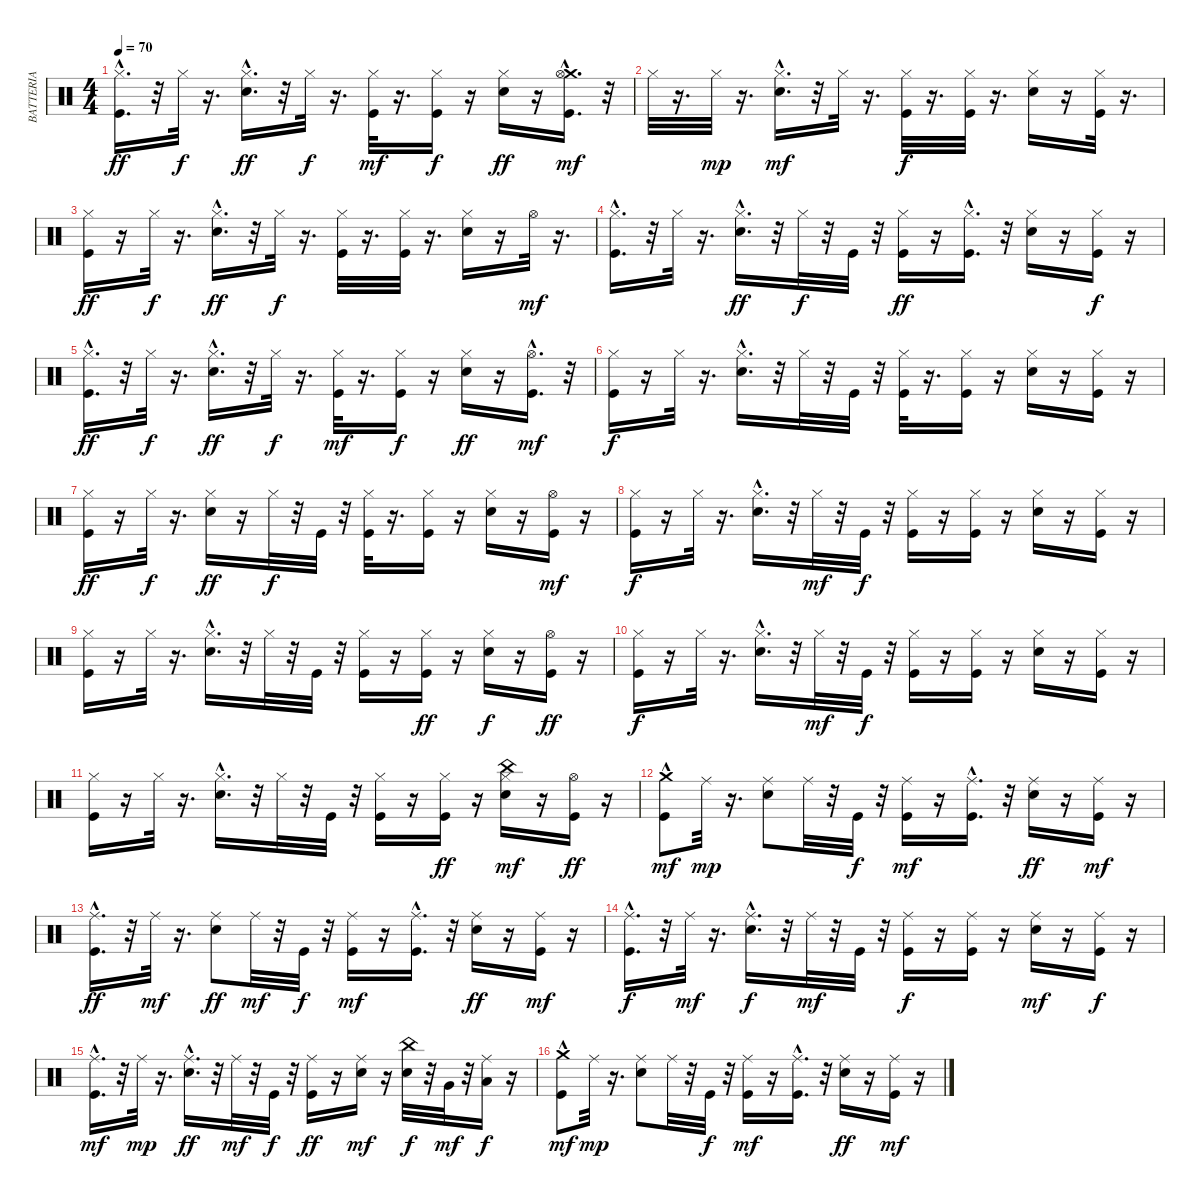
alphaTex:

\track ("BATTERIA" "BATTERIA") {instrument percussion}
\staff {score}
\articulation defaults
\ts (4 4)
\tempo 70
\clef neutral
\ks c
("Kick (hit)"{hac} "Hi-Hat (closed)").16{d dy ff} r.32 "Hi-Hat (closed)".32{dy f} r.16{d} ("Snare (hit) 2"{hac} "Hi-Hat (closed)").16{d dy ff} r.32 "Hi-Hat (closed)".32{dy f} r.16{d} ("Kick (hit)" "Hi-Hat (closed)").32{dy mf} r.16{d} ("Kick (hit)" "Hi-Hat (closed)").16{dy f} r.16 ("Snare (hit) 2" "Hi-Hat (closed)").16{dy ff} r.16 ("Crash medium (hit)" "Kick (hit)"{hac} "Hi-Hat (open)").16{d dy mf} r.32 |
"Hi-Hat (closed)".32 r.16{d} "Hi-Hat (closed)".32{dy mp} r.16{d} ("Snare (hit) 2"{hac} "Hi-Hat (closed)").16{d dy mf} r.32 "Hi-Hat (closed)".32 r.16{d} ("Hi-Hat (closed)" "Kick (hit)").32{dy f} r.16{d} ("Hi-Hat (closed)" "Kick (hit)").32 r.16{d} ("Hi-Hat (closed)" "Snare (hit) 2").16 r.16 ("Hi-Hat (closed)" "Kick (hit)").32 r.16{d} |
("Hi-Hat (closed)" "Kick (hit)").16{dy ff} r.16 "Hi-Hat (closed)".32{dy f} r.16{d} ("Hi-Hat (closed)" "Snare (hit) 2"{hac}).16{d dy ff} r.32 "Hi-Hat (closed)".32{dy f} r.16{d} ("Kick (hit)" "Hi-Hat (closed)").32 r.16{d} ("Hi-Hat (closed)" "Kick (hit)").32 r.16{d} ("Hi-Hat (closed)" "Snare (hit) 2").16 r.16 "Hi-Hat (open)".32{dy mf} r.16{d} |
("Kick (hit)"{hac} "Hi-Hat (closed)").16{d} r.32 "Hi-Hat (closed)".32 r.16{d} ("Hi-Hat (closed)" "Snare (hit) 2"{hac}).16{d dy ff} r.32 "Hi-Hat (closed)".32{dy f} r.32 "Kick (hit)".32 r.32 ("Kick (hit)" "Hi-Hat (closed)").16{dy ff} r.16 ("Kick (hit)"{hac} "Hi-Hat (closed)").16{d} r.32 ("Snare (hit) 2" "Hi-Hat (closed)").16 r.16 ("Hi-Hat (closed)" "Kick (hit)").16{dy f} r.16 |
("Kick (hit)"{hac} "Hi-Hat (closed)").16{d dy ff} r.32 "Hi-Hat (closed)".32{dy f} r.16{d} ("Snare (hit) 2"{hac} "Hi-Hat (closed)").16{d dy ff} r.32 "Hi-Hat (closed)".32{dy f} r.16{d} ("Kick (hit)" "Hi-Hat (closed)").32{dy mf} r.16{d} ("Kick (hit)" "Hi-Hat (closed)").16{dy f} r.16 ("Snare (hit) 2" "Hi-Hat (closed)").16{dy ff} r.16 ("Kick (hit)"{hac} "Hi-Hat (open)").16{d dy mf} r.32 |
("Kick (hit)" "Hi-Hat (closed)").16{dy f} r.16 "Hi-Hat (closed)".32 r.16{d} ("Hi-Hat (closed)" "Snare (hit) 2"{hac}).16{d} r.32 "Hi-Hat (closed)".32 r.32 "Kick (hit)".32 r.32 ("Hi-Hat (closed)" "Kick (hit)").32 r.16{d} ("Hi-Hat (closed)" "Kick (hit)").16 r.16 ("Hi-Hat (closed)" "Snare (hit) 2").16 r.16 ("Hi-Hat (closed)" "Kick (hit)").16 r.16 |
("Hi-Hat (closed)" "Kick (hit)").16{dy ff} r.16 "Hi-Hat (closed)".32{dy f} r.16{d} ("Hi-Hat (closed)" "Snare (hit) 2").16{dy ff} r.16 "Hi-Hat (closed)".32{dy f} r.32 "Kick (hit)".32 r.32 ("Kick (hit)" "Hi-Hat (closed)").32 r.16{d} ("Kick (hit)" "Hi-Hat (closed)").16 r.16 ("Snare (hit) 2" "Hi-Hat (closed)").16 r.16 ("Kick (hit)" "Hi-Hat (open)").16{dy mf} r.16 |
("Hi-Hat (closed)" "Kick (hit)").16{dy f} r.16 "Hi-Hat (closed)".32 r.16{d} ("Hi-Hat (closed)" "Snare (hit) 2"{hac}).16{d} r.32 "Hi-Hat (closed)".32{dy mf} r.32 "Kick (hit)".32{dy f} r.32 ("Hi-Hat (closed)" "Kick (hit)").16 r.16 ("Kick (hit)" "Hi-Hat (closed)").16 r.16 ("Snare (hit) 2" "Hi-Hat (closed)").16 r.16 ("Hi-Hat (closed)" "Kick (hit)").16 r.16 |
("Kick (hit)" "Hi-Hat (closed)").16 r.16 "Hi-Hat (closed)".32 r.16{d} ("Hi-Hat (closed)" "Snare (hit) 2"{hac}).16{d} r.32 "Hi-Hat (closed)".32 r.32 "Kick (hit)".32 r.32 ("Hi-Hat (closed)" "Kick (hit)").16 r.16 ("Kick (hit)" "Hi-Hat (closed)").16{dy ff} r.16 ("Hi-Hat (closed)" "Snare (hit) 2").16{dy f} r.16 ("Kick (hit)" "Hi-Hat (open)").16{dy ff} r.16 |
("Hi-Hat (closed)" "Kick (hit)").16{dy f} r.16 "Hi-Hat (closed)".32 r.16{d} ("Hi-Hat (closed)" "Snare (hit) 2"{hac}).16{d} r.32 "Hi-Hat (closed)".32{dy mf} r.32 "Kick (hit)".32{dy f} r.32 ("Hi-Hat (closed)" "Kick (hit)").16 r.16 ("Kick (hit)" "Hi-Hat (closed)").16 r.16 ("Snare (hit) 2" "Hi-Hat (closed)").16 r.16 ("Hi-Hat (closed)" "Kick (hit)").16 r.16 |
("Kick (hit)" "Hi-Hat (closed)").16 r.16 "Hi-Hat (closed)".32 r.16{d} ("Hi-Hat (closed)" "Snare (hit) 2"{hac}).16{d} r.32 "Hi-Hat (closed)".32 r.32 "Kick (hit)".32 r.32 ("Hi-Hat (closed)" "Kick (hit)").16 r.16 ("Kick (hit)" "Hi-Hat (closed)").16{dy ff} r.16 ("Hi-Hat (closed)" "Snare (hit) 2" "China (hit)").16{dy mf} r.16 ("Kick (hit)" "Hi-Hat (open)").16{dy ff} r.16 |
("Kick (hit)"{hac} "Crash medium (hit)").8{dy mf} "Ride (middle)".32{dy mp} r.16{d} ("Ride (middle)" "Snare (hit) 2").8 "Ride (middle)".32 r.32 "Kick (hit)".32{dy f} r.32 ("Ride (middle)" "Kick (hit)").16{dy mf} r.16 ("Ride (middle)" "Kick (hit)"{hac}).16{d} r.32 ("Ride (middle)" "Snare (hit) 2").16{dy ff} r.16 ("Ride (middle)" "Kick (hit)").16{dy mf} r.16 |
("Ride (middle)" "Kick (hit)"{hac}).16{d dy ff} r.32 "Ride (middle)".32{dy mf} r.16{d} ("Ride (middle)" "Snare (hit) 2").8{dy ff} "Ride (middle)".32{dy mf} r.32 "Kick (hit)".32{dy f} r.32 ("Ride (middle)" "Kick (hit)").16{dy mf} r.16 ("Ride (middle)" "Kick (hit)"{hac}).16{d} r.32 ("Ride (middle)" "Snare (hit) 2").16{dy ff} r.16 ("Ride (middle)" "Kick (hit)").16{dy mf} r.16 |
("Ride (middle)" "Kick (hit)"{hac}).16{d dy f} r.32 "Ride (middle)".32{dy mf} r.16{d} ("Ride (middle)" "Snare (hit) 2"{hac}).16{d dy f} r.32 "Ride (middle)".32{dy mf} r.32 "Kick (hit)".32 r.32 ("Ride (middle)" "Kick (hit)").16{dy f} r.16 ("Ride (middle)" "Kick (hit)").16 r.16 ("Ride (middle)" "Snare (hit) 2").16{dy mf} r.16 ("Ride (middle)" "Kick (hit)").16{dy f} r.16 |
("Ride (middle)" "Kick (hit)"{hac}).16{d dy mf} r.32 "Ride (middle)".32{dy mp} r.16{d} ("Ride (middle)" "Snare (hit) 2"{hac}).16{d dy ff} r.32 "Ride (middle)".32{dy mf} r.32 "Kick (hit)".32{dy f} r.32 ("Ride (middle)" "Kick (hit)").16{dy ff} r.16 ("Ride (middle)" "Snare (hit) 2").16{dy mf} r.16 ("China (hit)" "Snare (hit) 2").32{dy f} r.32 "Very Low Tom (hit)".32{dy mf} r.32 ("Ride (middle)" "Low Floor Tom (hit)").16{dy f} r.16 |
("Kick (hit)"{hac} "Crash medium (hit)").8{dy mf} "Ride (middle)".32{dy mp} r.16{d} ("Ride (middle)" "Snare (hit) 2").8 "Ride (middle)".32 r.32 "Kick (hit)".32{dy f} r.32 ("Ride (middle)" "Kick (hit)").16{dy mf} r.16 ("Ride (middle)" "Kick (hit)"{hac}).16{d} r.32 ("Ride (middle)" "Snare (hit) 2").16{dy ff} r.16 ("Ride (middle)" "Kick (hit)").16{dy mf} r.16
